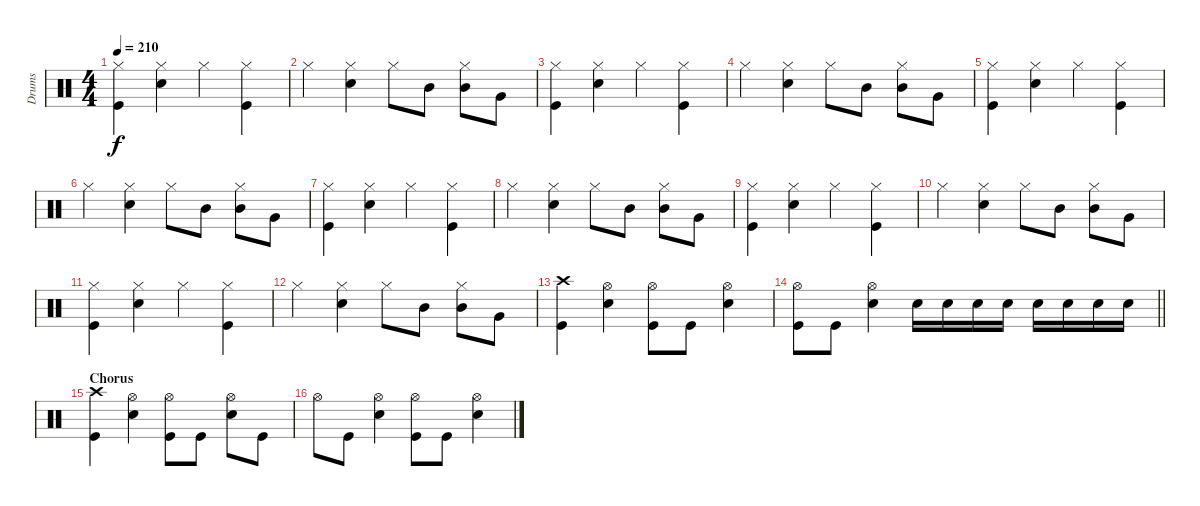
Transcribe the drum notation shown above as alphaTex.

\track ("Drums" "Drums") {instrument percussion}
\staff {score}
\articulation defaults
\ts (4 4)
\tempo 210
\clef neutral
\ks c
("Hi-Hat (closed)" "Kick (hit)").4{dy f} ("Hi-Hat (closed)" "Snare (hit) 2").4 "Hi-Hat (closed)".4 ("Hi-Hat (closed)" "Kick (hit)").4 |
"Hi-Hat (closed)".4 ("Hi-Hat (closed)" "Snare (hit) 2").4 "Hi-Hat (closed)".8 "Mid Tom (hit)".8 ("Hi-Hat (closed)" "Mid Tom (hit)").8 "Very Low Tom (hit)".8 |
("Hi-Hat (closed)" "Kick (hit)").4 ("Hi-Hat (closed)" "Snare (hit) 2").4 "Hi-Hat (closed)".4 ("Hi-Hat (closed)" "Kick (hit)").4 |
"Hi-Hat (closed)".4 ("Hi-Hat (closed)" "Snare (hit) 2").4 "Hi-Hat (closed)".8 "Mid Tom (hit)".8 ("Hi-Hat (closed)" "Mid Tom (hit)").8 "Very Low Tom (hit)".8 |
("Hi-Hat (closed)" "Kick (hit)").4 ("Hi-Hat (closed)" "Snare (hit) 2").4 "Hi-Hat (closed)".4 ("Hi-Hat (closed)" "Kick (hit)").4 |
"Hi-Hat (closed)".4 ("Hi-Hat (closed)" "Snare (hit) 2").4 "Hi-Hat (closed)".8 "Mid Tom (hit)".8 ("Hi-Hat (closed)" "Mid Tom (hit)").8 "Very Low Tom (hit)".8 |
("Hi-Hat (closed)" "Kick (hit)").4 ("Hi-Hat (closed)" "Snare (hit) 2").4 "Hi-Hat (closed)".4 ("Hi-Hat (closed)" "Kick (hit)").4 |
"Hi-Hat (closed)".4 ("Hi-Hat (closed)" "Snare (hit) 2").4 "Hi-Hat (closed)".8 "Mid Tom (hit)".8 ("Hi-Hat (closed)" "Mid Tom (hit)").8 "Very Low Tom (hit)".8 |
("Hi-Hat (closed)" "Kick (hit)").4 ("Hi-Hat (closed)" "Snare (hit) 2").4 "Hi-Hat (closed)".4 ("Hi-Hat (closed)" "Kick (hit)").4 |
"Hi-Hat (closed)".4 ("Hi-Hat (closed)" "Snare (hit) 2").4 "Hi-Hat (closed)".8 "Mid Tom (hit)".8 ("Hi-Hat (closed)" "Mid Tom (hit)").8 "Very Low Tom (hit)".8 |
("Hi-Hat (closed)" "Kick (hit)").4 ("Hi-Hat (closed)" "Snare (hit) 2").4 "Hi-Hat (closed)".4 ("Hi-Hat (closed)" "Kick (hit)").4 |
"Hi-Hat (closed)".4 ("Hi-Hat (closed)" "Snare (hit) 2").4 "Hi-Hat (closed)".8 "Mid Tom (hit)".8 ("Hi-Hat (closed)" "Mid Tom (hit)").8 "Very Low Tom (hit)".8 |
("Crash high (hit)" "Kick (hit)").4 ("Hi-Hat (open)" "Snare (hit) 2").4 ("Hi-Hat (open)" "Kick (hit)").8 "Kick (hit)".8 ("Hi-Hat (open)" "Snare (hit) 2").4 |
\barLineRight lightlight
("Hi-Hat (open)" "Kick (hit)").8 "Kick (hit)".8 ("Hi-Hat (open)" "Snare (hit) 2").4 "Snare (hit) 2".16 "Snare (hit) 2".16 "Snare (hit) 2".16 "Snare (hit) 2".16 "Snare (hit) 2".16 "Snare (hit) 2".16 "Snare (hit) 2".16 "Snare (hit) 2".16 |
\section ("" "Chorus")
("Crash high (hit)" "Kick (hit)").4 ("Hi-Hat (open)" "Snare (hit) 2").4 ("Hi-Hat (open)" "Kick (hit)").8 "Kick (hit)".8 ("Hi-Hat (open)" "Snare (hit) 2").8 "Kick (hit)".8 |
"Hi-Hat (open)".8 "Kick (hit)".8 ("Hi-Hat (open)" "Snare (hit) 2").4 ("Hi-Hat (open)" "Kick (hit)").8 "Kick (hit)".8 ("Hi-Hat (open)" "Snare (hit) 2").4
